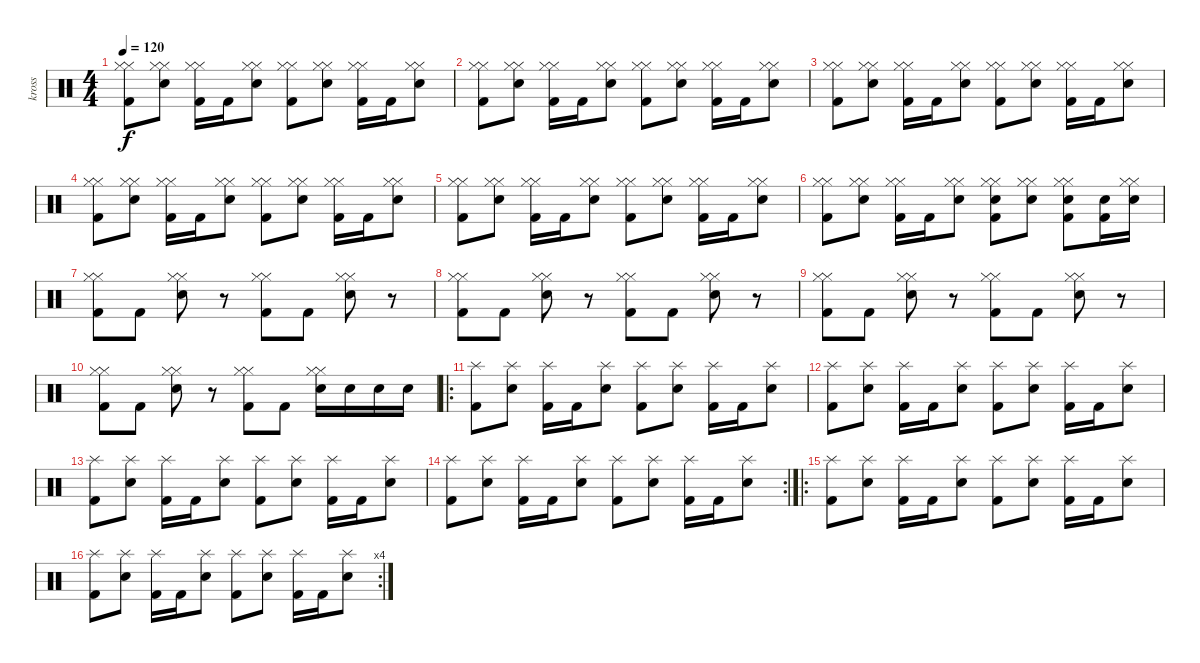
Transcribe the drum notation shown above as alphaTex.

\track ("kross" "kross") {instrument percussion}
\staff {score}
\articulation defaults
\ts (4 4)
\tempo 120
\clef neutral
\ks c
("Hi-Hat (closed)" "Hi-Hat (closed)" "Kick (hit) 2").8{dy f} ("Hi-Hat (closed)" "Hi-Hat (closed)" "Electric Snare (hit)").8 ("Hi-Hat (closed)" "Hi-Hat (closed)" "Kick (hit) 2").16 "Kick (hit) 2".16 ("Hi-Hat (closed)" "Hi-Hat (closed)" "Electric Snare (hit)").8 ("Hi-Hat (closed)" "Hi-Hat (closed)" "Kick (hit) 2").8 ("Hi-Hat (closed)" "Hi-Hat (closed)" "Electric Snare (hit)").8 ("Hi-Hat (closed)" "Hi-Hat (closed)" "Kick (hit) 2").16 "Kick (hit) 2".16 ("Hi-Hat (closed)" "Hi-Hat (closed)" "Electric Snare (hit)").8 |
("Hi-Hat (closed)" "Hi-Hat (closed)" "Kick (hit) 2").8 ("Hi-Hat (closed)" "Hi-Hat (closed)" "Electric Snare (hit)").8 ("Hi-Hat (closed)" "Hi-Hat (closed)" "Kick (hit) 2").16 "Kick (hit) 2".16 ("Hi-Hat (closed)" "Hi-Hat (closed)" "Electric Snare (hit)").8 ("Hi-Hat (closed)" "Hi-Hat (closed)" "Kick (hit) 2").8 ("Hi-Hat (closed)" "Hi-Hat (closed)" "Electric Snare (hit)").8 ("Hi-Hat (closed)" "Hi-Hat (closed)" "Kick (hit) 2").16 "Kick (hit) 2".16 ("Hi-Hat (closed)" "Hi-Hat (closed)" "Electric Snare (hit)").8 |
("Hi-Hat (closed)" "Hi-Hat (closed)" "Kick (hit) 2").8 ("Hi-Hat (closed)" "Hi-Hat (closed)" "Electric Snare (hit)").8 ("Hi-Hat (closed)" "Hi-Hat (closed)" "Kick (hit) 2").16 "Kick (hit) 2".16 ("Hi-Hat (closed)" "Hi-Hat (closed)" "Electric Snare (hit)").8 ("Hi-Hat (closed)" "Hi-Hat (closed)" "Kick (hit) 2").8 ("Hi-Hat (closed)" "Hi-Hat (closed)" "Electric Snare (hit)").8 ("Hi-Hat (closed)" "Hi-Hat (closed)" "Kick (hit) 2").16 "Kick (hit) 2".16 ("Hi-Hat (closed)" "Hi-Hat (closed)" "Electric Snare (hit)").8 |
("Hi-Hat (closed)" "Hi-Hat (closed)" "Kick (hit) 2").8 ("Hi-Hat (closed)" "Hi-Hat (closed)" "Electric Snare (hit)").8 ("Hi-Hat (closed)" "Hi-Hat (closed)" "Kick (hit) 2").16 "Kick (hit) 2".16 ("Hi-Hat (closed)" "Hi-Hat (closed)" "Electric Snare (hit)").8 ("Hi-Hat (closed)" "Hi-Hat (closed)" "Kick (hit) 2").8 ("Hi-Hat (closed)" "Hi-Hat (closed)" "Electric Snare (hit)").8 ("Hi-Hat (closed)" "Hi-Hat (closed)" "Kick (hit) 2").16 "Kick (hit) 2".16 ("Hi-Hat (closed)" "Hi-Hat (closed)" "Electric Snare (hit)").8 |
("Hi-Hat (closed)" "Hi-Hat (closed)" "Kick (hit) 2").8 ("Hi-Hat (closed)" "Hi-Hat (closed)" "Electric Snare (hit)").8 ("Hi-Hat (closed)" "Hi-Hat (closed)" "Kick (hit) 2").16 "Kick (hit) 2".16 ("Hi-Hat (closed)" "Hi-Hat (closed)" "Electric Snare (hit)").8 ("Hi-Hat (closed)" "Hi-Hat (closed)" "Kick (hit) 2").8 ("Hi-Hat (closed)" "Hi-Hat (closed)" "Electric Snare (hit)").8 ("Hi-Hat (closed)" "Hi-Hat (closed)" "Kick (hit) 2").16 "Kick (hit) 2".16 ("Hi-Hat (closed)" "Hi-Hat (closed)" "Electric Snare (hit)").8 |
("Hi-Hat (closed)" "Hi-Hat (closed)" "Kick (hit) 2").8 ("Hi-Hat (closed)" "Hi-Hat (closed)" "Electric Snare (hit)").8 ("Hi-Hat (closed)" "Hi-Hat (closed)" "Kick (hit) 2").16 "Kick (hit) 2".16 ("Hi-Hat (closed)" "Hi-Hat (closed)" "Electric Snare (hit)").8 ("Hi-Hat (closed)" "Hi-Hat (closed)" "Electric Snare (hit)" "Kick (hit) 2").8 ("Hi-Hat (closed)" "Hi-Hat (closed)" "Electric Snare (hit)").8 ("Hi-Hat (closed)" "Hi-Hat (closed)" "Electric Snare (hit)" "Kick (hit) 2").8 ("Electric Snare (hit)" "Kick (hit) 2").16 ("Hi-Hat (closed)" "Hi-Hat (closed)" "Electric Snare (hit)").16 |
("Hi-Hat (closed)" "Hi-Hat (closed)" "Kick (hit) 2").8 "Kick (hit) 2".8 ("Hi-Hat (closed)" "Hi-Hat (closed)" "Electric Snare (hit)").8 r.8 ("Hi-Hat (closed)" "Hi-Hat (closed)" "Kick (hit) 2").8 "Kick (hit) 2".8 ("Hi-Hat (closed)" "Hi-Hat (closed)" "Electric Snare (hit)").8 r.8 |
("Hi-Hat (closed)" "Hi-Hat (closed)" "Kick (hit) 2").8 "Kick (hit) 2".8 ("Hi-Hat (closed)" "Hi-Hat (closed)" "Electric Snare (hit)").8 r.8 ("Hi-Hat (closed)" "Hi-Hat (closed)" "Kick (hit) 2").8 "Kick (hit) 2".8 ("Hi-Hat (closed)" "Hi-Hat (closed)" "Electric Snare (hit)").8 r.8 |
("Hi-Hat (closed)" "Hi-Hat (closed)" "Kick (hit) 2").8 "Kick (hit) 2".8 ("Hi-Hat (closed)" "Hi-Hat (closed)" "Electric Snare (hit)").8 r.8 ("Hi-Hat (closed)" "Hi-Hat (closed)" "Kick (hit) 2").8 "Kick (hit) 2".8 ("Hi-Hat (closed)" "Hi-Hat (closed)" "Electric Snare (hit)").8 r.8 |
("Hi-Hat (closed)" "Hi-Hat (closed)" "Kick (hit) 2").8 "Kick (hit) 2".8 ("Hi-Hat (closed)" "Hi-Hat (closed)" "Electric Snare (hit)").8 r.8 ("Hi-Hat (closed)" "Hi-Hat (closed)" "Kick (hit) 2").8 "Kick (hit) 2".8 ("Hi-Hat (closed)" "Hi-Hat (closed)" "Electric Snare (hit)").16 "Electric Snare (hit)".16 "Electric Snare (hit)".16 "Electric Snare (hit)".16 |
\ro
("Splash (hit)" "Kick (hit) 2").8 ("Splash (hit)" "Electric Snare (hit)").8 ("Splash (hit)" "Kick (hit) 2").16 "Kick (hit) 2".16 ("Splash (hit)" "Electric Snare (hit)").8 ("Splash (hit)" "Kick (hit) 2").8 ("Splash (hit)" "Electric Snare (hit)").8 ("Splash (hit)" "Kick (hit) 2").16 "Kick (hit) 2".16 ("Splash (hit)" "Electric Snare (hit)").8 |
("Splash (hit)" "Kick (hit) 2").8 ("Splash (hit)" "Electric Snare (hit)").8 ("Splash (hit)" "Kick (hit) 2").16 "Kick (hit) 2".16 ("Splash (hit)" "Electric Snare (hit)").8 ("Splash (hit)" "Kick (hit) 2").8 ("Splash (hit)" "Electric Snare (hit)").8 ("Splash (hit)" "Kick (hit) 2").16 "Kick (hit) 2".16 ("Splash (hit)" "Electric Snare (hit)").8 |
("Splash (hit)" "Kick (hit) 2").8 ("Splash (hit)" "Electric Snare (hit)").8 ("Splash (hit)" "Kick (hit) 2").16 "Kick (hit) 2".16 ("Splash (hit)" "Electric Snare (hit)").8 ("Splash (hit)" "Kick (hit) 2").8 ("Splash (hit)" "Electric Snare (hit)").8 ("Splash (hit)" "Kick (hit) 2").16 "Kick (hit) 2".16 ("Splash (hit)" "Electric Snare (hit)").8 |
\rc 2
("Splash (hit)" "Kick (hit) 2").8 ("Splash (hit)" "Electric Snare (hit)").8 ("Splash (hit)" "Kick (hit) 2").16 "Kick (hit) 2".16 ("Splash (hit)" "Electric Snare (hit)").8 ("Splash (hit)" "Kick (hit) 2").8 ("Splash (hit)" "Electric Snare (hit)").8 ("Splash (hit)" "Kick (hit) 2").16 "Kick (hit) 2".16 ("Splash (hit)" "Electric Snare (hit)").8 |
\ro
("Splash (hit)" "Kick (hit) 2").8 ("Splash (hit)" "Electric Snare (hit)").8 ("Splash (hit)" "Kick (hit) 2").16 "Kick (hit) 2".16 ("Splash (hit)" "Electric Snare (hit)").8 ("Splash (hit)" "Kick (hit) 2").8 ("Splash (hit)" "Electric Snare (hit)").8 ("Splash (hit)" "Kick (hit) 2").16 "Kick (hit) 2".16 ("Splash (hit)" "Electric Snare (hit)").8 |
\rc 4
("Splash (hit)" "Kick (hit) 2").8 ("Splash (hit)" "Electric Snare (hit)").8 ("Splash (hit)" "Kick (hit) 2").16 "Kick (hit) 2".16 ("Splash (hit)" "Electric Snare (hit)").8 ("Splash (hit)" "Kick (hit) 2").8 ("Splash (hit)" "Electric Snare (hit)").8 ("Splash (hit)" "Kick (hit) 2").16 "Kick (hit) 2".16 ("Splash (hit)" "Electric Snare (hit)").8
